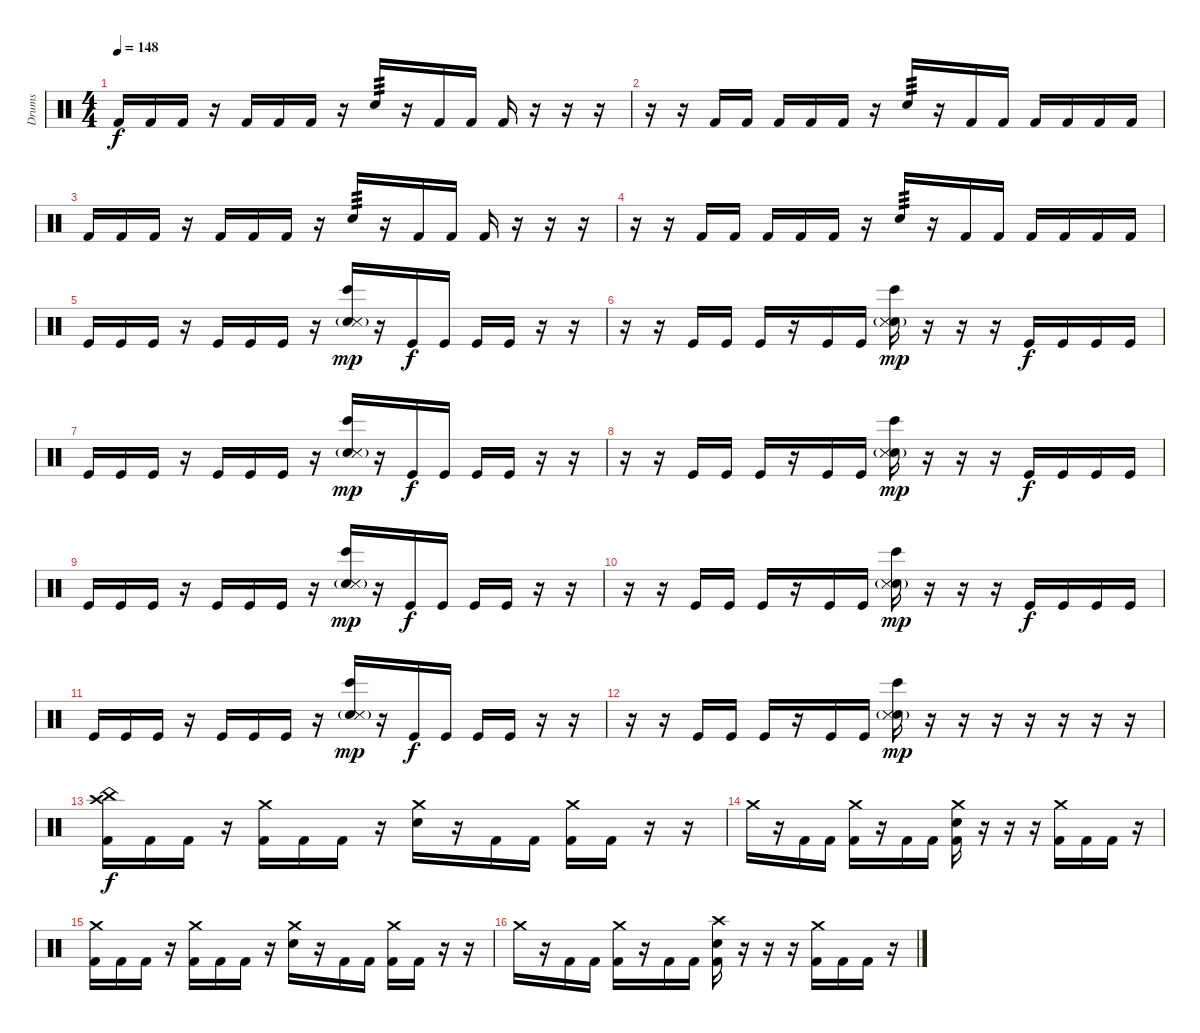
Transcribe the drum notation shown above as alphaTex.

\track ("Drums" "Drums") {instrument percussion}
\staff {score}
\articulation defaults
\ts (4 4)
\tempo 148
\clef neutral
\ks c "Kick (hit) 2".16{dy f} "Kick (hit) 2".16 "Kick (hit) 2".16
r.16 "Kick (hit) 2".16 "Kick (hit) 2".16 "Kick (hit) 2".16 r.16 "Electric Snare (hit)".16{tp 3} r.16 "Kick (hit) 2".16 "Kick (hit) 2".16 "Kick (hit) 2".16 r.16 r.16 r.16 |
r.16 r.16 "Kick (hit) 2".16 "Kick (hit) 2".16 "Kick (hit) 2".16 "Kick (hit) 2".16 "Kick (hit) 2".16 r.16 "Electric Snare (hit)".16{tp 3} r.16 "Kick (hit) 2".16 "Kick (hit) 2".16 "Kick (hit) 2".16 "Kick (hit) 2".16 "Kick (hit) 2".16 "Kick (hit) 2".16 |
"Kick (hit) 2".16 "Kick (hit) 2".16 "Kick (hit) 2".16 r.16 "Kick (hit) 2".16 "Kick (hit) 2".16 "Kick (hit) 2".16 r.16 "Electric Snare (hit)".16{tp 3} r.16 "Kick (hit) 2".16 "Kick (hit) 2".16 "Kick (hit) 2".16 r.16 r.16 r.16 |
r.16 r.16 "Kick (hit) 2".16 "Kick (hit) 2".16 "Kick (hit) 2".16 "Kick (hit) 2".16 "Kick (hit) 2".16 r.16 "Electric Snare (hit)".16{tp 3} r.16 "Kick (hit) 2".16 "Kick (hit) 2".16 "Kick (hit) 2".16 "Kick (hit) 2".16 "Kick (hit) 2".16 "Kick (hit) 2".16 |
"Kick (hit)".16 "Kick (hit)".16 "Kick (hit)".16 r.16 "Kick (hit)".16 "Kick (hit)".16 "Kick (hit)".16 r.16 ("Electric Snare (hit)"{g} "Bongo High (hit)" "Snare (side stick) 3" "Metronome (hit)").16{dy mp} r.16 "Kick (hit)".16{dy f} "Kick (hit)".16 "Kick (hit)".16 "Kick (hit)".16 r.16 r.16 |
r.16 r.16 "Kick (hit)".16 "Kick (hit)".16 "Kick (hit)".16 r.16 "Kick (hit)".16 "Kick (hit)".16 ("Electric Snare (hit)"{g} "Bongo High (hit)" "Snare (side stick) 3" "Metronome (hit)").16{dy mp} r.16 r.16 r.16 "Kick (hit)".16{dy f} "Kick (hit)".16 "Kick (hit)".16 "Kick (hit)".16 |
"Kick (hit)".16 "Kick (hit)".16 "Kick (hit)".16 r.16 "Kick (hit)".16 "Kick (hit)".16 "Kick (hit)".16 r.16 ("Electric Snare (hit)"{g} "Bongo High (hit)" "Snare (side stick) 3" "Metronome (hit)").16{dy mp} r.16 "Kick (hit)".16{dy f} "Kick (hit)".16 "Kick (hit)".16 "Kick (hit)".16 r.16 r.16 |
r.16 r.16 "Kick (hit)".16 "Kick (hit)".16 "Kick (hit)".16 r.16 "Kick (hit)".16 "Kick (hit)".16 ("Electric Snare (hit)"{g} "Bongo High (hit)" "Snare (side stick) 3" "Metronome (hit)").16{dy mp} r.16 r.16 r.16 "Kick (hit)".16{dy f} "Kick (hit)".16 "Kick (hit)".16 "Kick (hit)".16 |
"Kick (hit)".16 "Kick (hit)".16 "Kick (hit)".16 r.16 "Kick (hit)".16 "Kick (hit)".16 "Kick (hit)".16 r.16 ("Electric Snare (hit)"{g} "Bongo High (hit)" "Snare (side stick) 3" "Metronome (hit)").16{dy mp} r.16 "Kick (hit)".16{dy f} "Kick (hit)".16 "Kick (hit)".16 "Kick (hit)".16 r.16 r.16 |
r.16 r.16 "Kick (hit)".16 "Kick (hit)".16 "Kick (hit)".16 r.16 "Kick (hit)".16 "Kick (hit)".16 ("Electric Snare (hit)"{g} "Bongo High (hit)" "Snare (side stick) 3" "Metronome (hit)").16{dy mp} r.16 r.16 r.16 "Kick (hit)".16{dy f} "Kick (hit)".16 "Kick (hit)".16 "Kick (hit)".16 |
"Kick (hit)".16 "Kick (hit)".16 "Kick (hit)".16 r.16 "Kick (hit)".16 "Kick (hit)".16 "Kick (hit)".16 r.16 ("Electric Snare (hit)"{g} "Bongo High (hit)" "Snare (side stick) 3" "Metronome (hit)").16{dy mp} r.16 "Kick (hit)".16{dy f} "Kick (hit)".16 "Kick (hit)".16 "Kick (hit)".16 r.16 r.16 |
r.16 r.16 "Kick (hit)".16 "Kick (hit)".16 "Kick (hit)".16 r.16 "Kick (hit)".16 "Kick (hit)".16 ("Electric Snare (hit)"{g} "Bongo High (hit)" "Snare (side stick) 3" "Metronome (hit)").16{dy mp} r.16 r.16 r.16 r.16 r.16 r.16 r.16 |
("Crash high (hit)" "China (hit)" "Kick (hit) 2").16{dy f} "Kick (hit) 2".16 "Kick (hit) 2".16 r.16 ("Crash medium (hit)" "Kick (hit) 2").16 "Kick (hit) 2".16 "Kick (hit) 2".16 r.16 ("Crash medium (hit)" "Electric Snare (hit)").16 r.16 "Kick (hit) 2".16 "Kick (hit) 2".16 ("Crash medium (hit)" "Kick (hit) 2").16 "Kick (hit) 2".16 r.16 r.16 |
"Crash medium (hit)".16 r.16 "Kick (hit) 2".16 "Kick (hit) 2".16 ("Crash medium (hit)" "Kick (hit) 2").16 r.16 "Kick (hit) 2".16 "Kick (hit) 2".16 ("Crash medium (hit)" "Electric Snare (hit)" "Kick (hit) 2").16 r.16 r.16 r.16 ("Crash medium (hit)" "Kick (hit) 2").16 "Kick (hit) 2".16 "Kick (hit) 2".16 r.16 |
("Crash medium (hit)" "Kick (hit) 2").16 "Kick (hit) 2".16 "Kick (hit) 2".16 r.16 ("Crash medium (hit)" "Kick (hit) 2").16 "Kick (hit) 2".16 "Kick (hit) 2".16 r.16 ("Crash medium (hit)" "Electric Snare (hit)").16 r.16 "Kick (hit) 2".16 "Kick (hit) 2".16 ("Crash medium (hit)" "Kick (hit) 2").16 "Kick (hit) 2".16 r.16 r.16 |
"Crash medium (hit)".16 r.16 "Kick (hit) 2".16 "Kick (hit) 2".16 ("Crash medium (hit)" "Kick (hit) 2").16 r.16 "Kick (hit) 2".16 "Kick (hit) 2".16 ("Crash high (hit)" "Electric Snare (hit)" "Kick (hit) 2").16 r.16 r.16 r.16 ("Crash medium (hit)" "Kick (hit) 2").16 "Kick (hit) 2".16 "Kick (hit) 2".16 r.16
